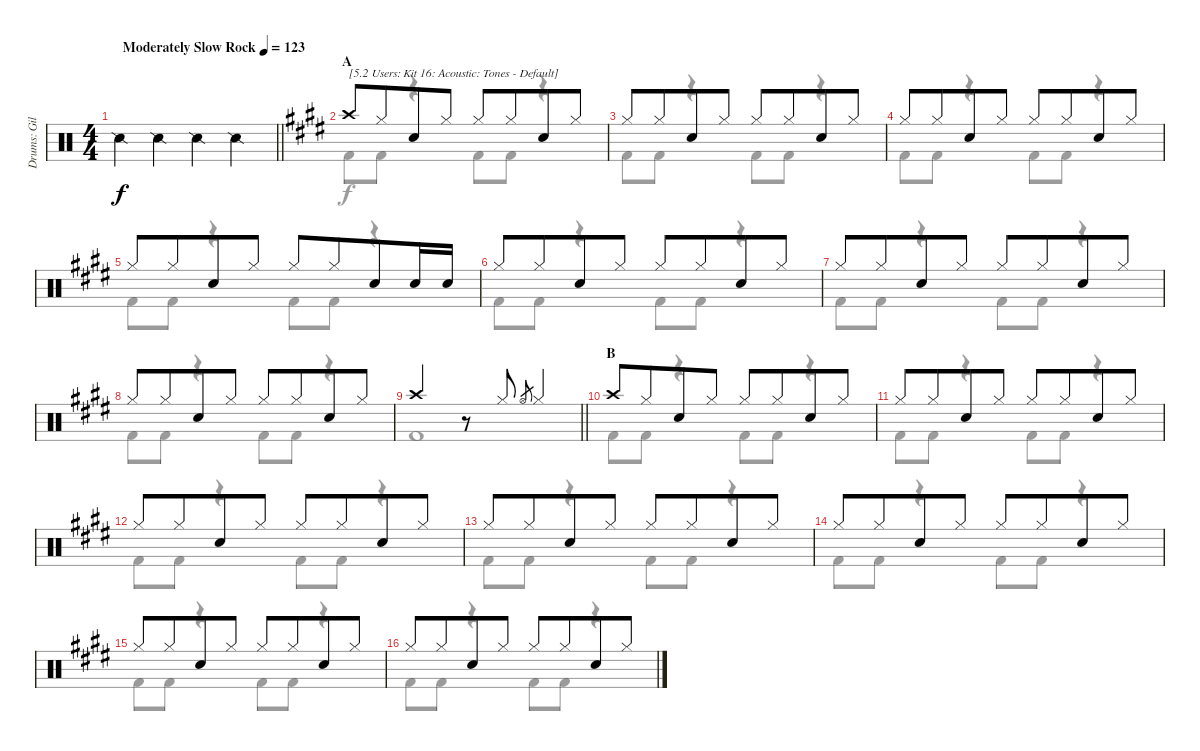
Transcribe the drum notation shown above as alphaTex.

\track ("Drums: Gil" "Drums: Gil") {instrument percussion}
\staff {score}
\articulation defaults
\voice
\ts (4 4)
\tempo (123 "Moderately Slow Rock")
\clef neutral
\barLineRight lightlight
\ks c "Snare (side stick) 2".4{dy f} "Snare (side stick) 2".4 "Snare (side stick) 2".4 "Snare (side stick) 2".4
|
\section ("" "A")
\ks e "Crash high (hit)".8{txt "[5.2 Users: Kit 16: Acoustic: Tones - Default]"} "Hi-Hat (closed)".8{beam merge} "Snare (hit) 2".8 "Hi-Hat (closed)".8 "Hi-Hat (closed)".8 "Hi-Hat (closed)".8{beam merge} "Snare (hit) 2".8 "Hi-Hat (closed)".8
|
"Hi-Hat (closed)".8 "Hi-Hat (closed)".8{beam merge} "Snare (hit) 2".8 "Hi-Hat (closed)".8 "Hi-Hat (closed)".8 "Hi-Hat (closed)".8{beam merge} "Snare (hit) 2".8 "Hi-Hat (closed)".8 |
"Hi-Hat (closed)".8 "Hi-Hat (closed)".8{beam merge} "Snare (hit) 2".8 "Hi-Hat (closed)".8 "Hi-Hat (closed)".8 "Hi-Hat (closed)".8{beam merge} "Snare (hit) 2".8 "Hi-Hat (closed)".8 |
"Hi-Hat (closed)".8 "Hi-Hat (closed)".8{beam merge} "Snare (hit) 2".8 "Hi-Hat (closed)".8 "Hi-Hat (closed)".8 "Hi-Hat (closed)".8{beam merge} "Snare (hit) 2".8 "Snare (hit) 2".16 "Snare (hit) 2".16 |
"Hi-Hat (closed)".8 "Hi-Hat (closed)".8{beam merge} "Snare (hit) 2".8 "Hi-Hat (closed)".8 "Hi-Hat (closed)".8 "Hi-Hat (closed)".8{beam merge} "Snare (hit) 2".8 "Hi-Hat (closed)".8 |
"Hi-Hat (closed)".8 "Hi-Hat (closed)".8{beam merge} "Snare (hit) 2".8 "Hi-Hat (closed)".8 "Hi-Hat (closed)".8 "Hi-Hat (closed)".8{beam merge} "Snare (hit) 2".8 "Hi-Hat (closed)".8 |
"Hi-Hat (closed)".8 "Hi-Hat (closed)".8{beam merge} "Snare (hit) 2".8 "Hi-Hat (closed)".8 "Hi-Hat (closed)".8 "Hi-Hat (closed)".8{beam merge} "Snare (hit) 2".8 "Hi-Hat (closed)".8 |
\barLineRight lightlight "Crash high (hit)".2
r.8 "Hi-Hat (closed)".8 "Hi-Hat (open)".8{gr} "Hi-Hat (closed)".4 |
\section ("" "B")
"Crash high (hit)".8 "Hi-Hat (closed)".8{beam merge} "Snare (hit) 2".8 "Hi-Hat (closed)".8 "Hi-Hat (closed)".8 "Hi-Hat (closed)".8{beam merge} "Snare (hit) 2".8 "Hi-Hat (closed)".8 |
"Hi-Hat (closed)".8 "Hi-Hat (closed)".8{beam merge} "Snare (hit) 2".8 "Hi-Hat (closed)".8 "Hi-Hat (closed)".8 "Hi-Hat (closed)".8{beam merge} "Snare (hit) 2".8 "Hi-Hat (closed)".8 |
"Hi-Hat (closed)".8 "Hi-Hat (closed)".8{beam merge} "Snare (hit) 2".8 "Hi-Hat (closed)".8 "Hi-Hat (closed)".8 "Hi-Hat (closed)".8{beam merge} "Snare (hit) 2".8 "Hi-Hat (closed)".8 |
"Hi-Hat (closed)".8 "Hi-Hat (closed)".8{beam merge} "Snare (hit) 2".8 "Hi-Hat (closed)".8 "Hi-Hat (closed)".8 "Hi-Hat (closed)".8{beam merge} "Snare (hit) 2".8 "Hi-Hat (closed)".8 |
"Hi-Hat (closed)".8 "Hi-Hat (closed)".8{beam merge} "Snare (hit) 2".8 "Hi-Hat (closed)".8 "Hi-Hat (closed)".8 "Hi-Hat (closed)".8{beam merge} "Snare (hit) 2".8 "Hi-Hat (closed)".8 |
"Hi-Hat (closed)".8 "Hi-Hat (closed)".8{beam merge} "Snare (hit) 2".8 "Hi-Hat (closed)".8 "Hi-Hat (closed)".8 "Hi-Hat (closed)".8{beam merge} "Snare (hit) 2".8 "Hi-Hat (closed)".8 |
"Hi-Hat (closed)".8 "Hi-Hat (closed)".8{beam merge} "Snare (hit) 2".8 "Hi-Hat (closed)".8 "Hi-Hat (closed)".8 "Hi-Hat (closed)".8{beam merge} "Snare (hit) 2".8 "Hi-Hat (closed)".8
\voice
\clef neutral
\ottava regular
\simile none
\barLineRight lightlight
\ks c
|
\ks e "Kick (hit) 2".8 "Kick (hit) 2".8
r.4 "Kick (hit) 2".8 "Kick (hit) 2".8 r.4 |
"Kick (hit) 2".8 "Kick (hit) 2".8 r.4 "Kick (hit) 2".8 "Kick (hit) 2".8 r.4 |
"Kick (hit) 2".8 "Kick (hit) 2".8 r.4 "Kick (hit) 2".8 "Kick (hit) 2".8 r.4 |
"Kick (hit) 2".8 "Kick (hit) 2".8 r.4 "Kick (hit) 2".8 "Kick (hit) 2".8 r.4 |
"Kick (hit) 2".8 "Kick (hit) 2".8 r.4 "Kick (hit) 2".8 "Kick (hit) 2".8 r.4 |
"Kick (hit) 2".8 "Kick (hit) 2".8 r.4 "Kick (hit) 2".8 "Kick (hit) 2".8 r.4 |
"Kick (hit) 2".8 "Kick (hit) 2".8 r.4 "Kick (hit) 2".8 "Kick (hit) 2".8 r.4 |
\barLineRight lightlight "Kick (hit) 2".1
|
"Kick (hit) 2".8 "Kick (hit) 2".8 r.4 "Kick (hit) 2".8 "Kick (hit) 2".8 r.4 |
"Kick (hit) 2".8 "Kick (hit) 2".8 r.4 "Kick (hit) 2".8 "Kick (hit) 2".8 r.4 |
"Kick (hit) 2".8 "Kick (hit) 2".8 r.4 "Kick (hit) 2".8 "Kick (hit) 2".8 r.4 |
"Kick (hit) 2".8 "Kick (hit) 2".8 r.4 "Kick (hit) 2".8 "Kick (hit) 2".8 r.4 |
"Kick (hit) 2".8 "Kick (hit) 2".8 r.4 "Kick (hit) 2".8 "Kick (hit) 2".8 r.4 |
"Kick (hit) 2".8 "Kick (hit) 2".8 r.4 "Kick (hit) 2".8 "Kick (hit) 2".8 r.4 |
"Kick (hit) 2".8 "Kick (hit) 2".8 r.4 "Kick (hit) 2".8 "Kick (hit) 2".8 r.4
